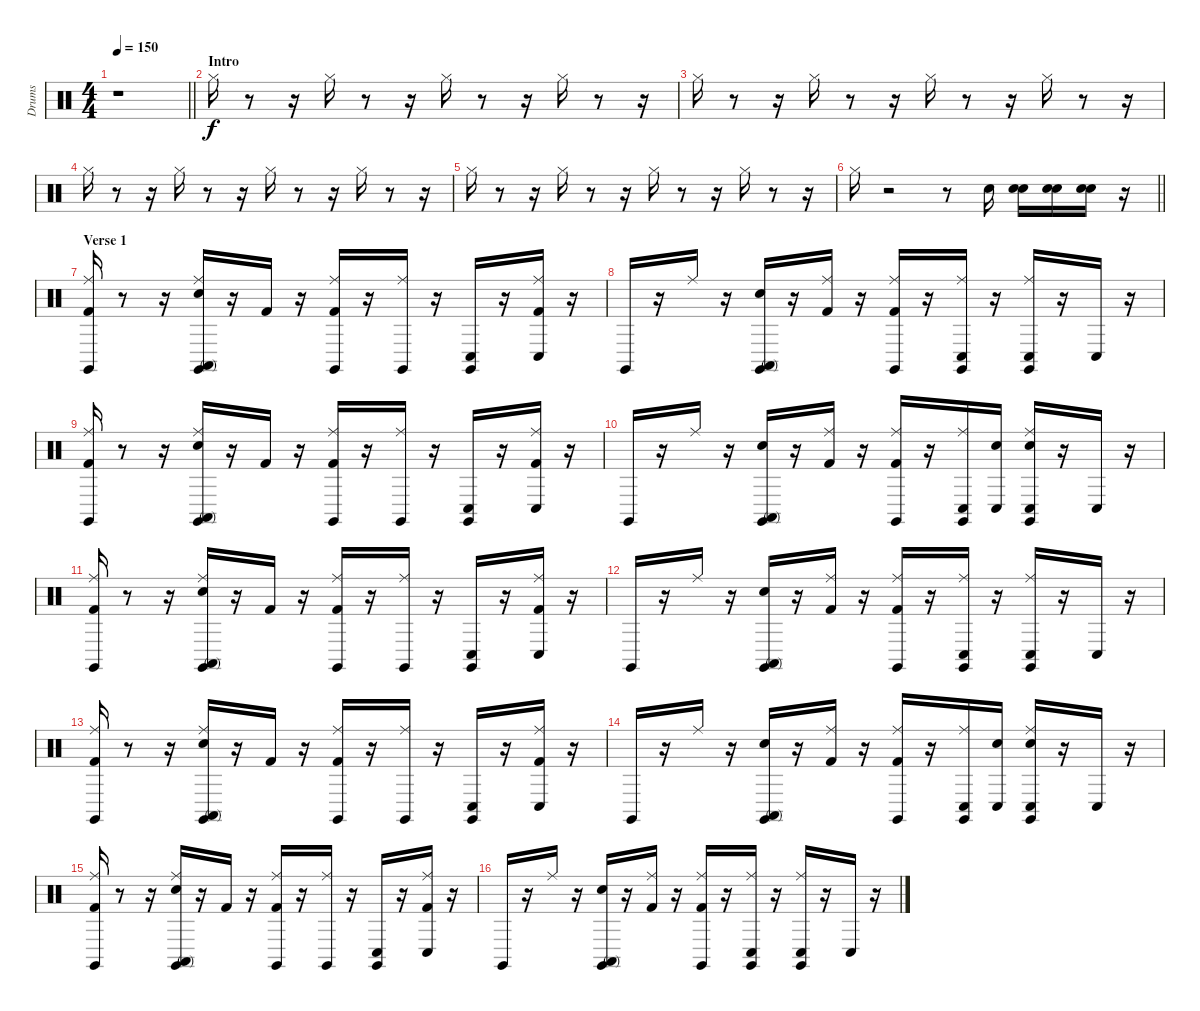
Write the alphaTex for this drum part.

\track ("Drums" "Drums") {instrument percussion}
\staff {score}
\articulation defaults
\ts (4 4)
\tempo 150
\clef neutral
\barLineRight lightlight
\ks c
r.1{dy f} |
\section ("" "Intro")
"Hi-Hat (closed)".16 r.8 r.16 "Hi-Hat (closed)".16 r.8 r.16 "Hi-Hat (closed)".16 r.8 r.16 "Hi-Hat (closed)".16 r.8 r.16 |
"Hi-Hat (closed)".16 r.8 r.16 "Hi-Hat (closed)".16 r.8 r.16 "Hi-Hat (closed)".16 r.8 r.16 "Hi-Hat (closed)".16 r.8 r.16 |
"Hi-Hat (closed)".16 r.8 r.16 "Hi-Hat (closed)".16 r.8 r.16 "Hi-Hat (closed)".16 r.8 r.16 "Hi-Hat (closed)".16 r.8 r.16 |
"Hi-Hat (closed)".16 r.8 r.16 "Hi-Hat (closed)".16 r.8 r.16 "Hi-Hat (closed)".16 r.8 r.16 "Hi-Hat (closed)".16 r.8 r.16 |
\barLineRight lightlight "Hi-Hat (closed)".16
r.2 r.8 "Snare (hit) 2".16 ("Snare (hit)" "Snare (hit) 2").16 ("Snare (hit)" "Snare (hit) 2").16 ("Snare (hit)" "Snare (hit) 2").16 r.16 |
\section ("" "Verse 1")
("Kick (hit) 2" "Ride (middle)" "Claves (hit)").16 r.8 r.16 ("Snare (hit) 2" "Ride (middle)" "Conga high (mute)" "Claves (hit)").16 r.16 "Kick (hit) 2".16 r.16 ("Kick (hit) 2" "Ride (middle)" "Claves (hit)").16 r.16 ("Ride (middle)" "Claves (hit)").16 r.16 ("Conga low (hit)" "Claves (hit)").16 r.16 ("Kick (hit) 2" "Ride (middle)" "Conga low (hit)").16 r.16 |
"Claves (hit)".16 r.16 "Ride (middle)".16 r.16 ("Snare (hit) 2" "Conga high (mute)" "Claves (hit)").16 r.16 ("Kick (hit) 2" "Ride (middle)").16 r.16 ("Kick (hit) 2" "Ride (middle)" "Claves (hit)").16 r.16 ("Ride (middle)" "Conga low (hit)" "Claves (hit)").16 r.16 ("Ride (middle)" "Conga low (hit)" "Claves (hit)").16 r.16 "Conga low (hit)".16 r.16 |
("Kick (hit) 2" "Ride (middle)" "Claves (hit)").16 r.8 r.16 ("Snare (hit) 2" "Ride (middle)" "Conga high (mute)" "Claves (hit)").16 r.16 "Kick (hit) 2".16 r.16 ("Kick (hit) 2" "Ride (middle)" "Claves (hit)").16 r.16 ("Ride (middle)" "Claves (hit)").16 r.16 ("Conga low (hit)" "Claves (hit)").16 r.16 ("Kick (hit) 2" "Ride (middle)" "Conga low (hit)").16 r.16 |
"Claves (hit)".16 r.16 "Ride (middle)".16 r.16 ("Snare (hit) 2" "Conga high (mute)" "Claves (hit)").16 r.16 ("Kick (hit) 2" "Ride (middle)").16 r.16 ("Kick (hit) 2" "Ride (middle)" "Claves (hit)").16 r.16 ("Ride (middle)" "Conga low (hit)" "Claves (hit)").16 ("Snare (hit)" "Conga low (hit)").16 ("Snare (hit)" "Ride (middle)" "Conga low (hit)" "Claves (hit)").16 r.16 "Conga low (hit)".16 r.16 |
("Kick (hit) 2" "Ride (middle)" "Claves (hit)").16 r.8 r.16 ("Snare (hit) 2" "Ride (middle)" "Conga high (mute)" "Claves (hit)").16 r.16 "Kick (hit) 2".16 r.16 ("Kick (hit) 2" "Ride (middle)" "Claves (hit)").16 r.16 ("Ride (middle)" "Claves (hit)").16 r.16 ("Conga low (hit)" "Claves (hit)").16 r.16 ("Kick (hit) 2" "Ride (middle)" "Conga low (hit)").16 r.16 |
"Claves (hit)".16 r.16 "Ride (middle)".16 r.16 ("Snare (hit) 2" "Conga high (mute)" "Claves (hit)").16 r.16 ("Kick (hit) 2" "Ride (middle)").16 r.16 ("Kick (hit) 2" "Ride (middle)" "Claves (hit)").16 r.16 ("Ride (middle)" "Conga low (hit)" "Claves (hit)").16 r.16 ("Ride (middle)" "Conga low (hit)" "Claves (hit)").16 r.16 "Conga low (hit)".16 r.16 |
("Kick (hit) 2" "Ride (middle)" "Claves (hit)").16 r.8 r.16 ("Snare (hit) 2" "Ride (middle)" "Conga high (mute)" "Claves (hit)").16 r.16 "Kick (hit) 2".16 r.16 ("Kick (hit) 2" "Ride (middle)" "Claves (hit)").16 r.16 ("Ride (middle)" "Claves (hit)").16 r.16 ("Conga low (hit)" "Claves (hit)").16 r.16 ("Kick (hit) 2" "Ride (middle)" "Conga low (hit)").16 r.16 |
"Claves (hit)".16 r.16 "Ride (middle)".16 r.16 ("Snare (hit) 2" "Conga high (mute)" "Claves (hit)").16 r.16 ("Kick (hit) 2" "Ride (middle)").16 r.16 ("Kick (hit) 2" "Ride (middle)" "Claves (hit)").16 r.16 ("Ride (middle)" "Conga low (hit)" "Claves (hit)").16 ("Snare (hit)" "Conga low (hit)").16 ("Snare (hit)" "Ride (middle)" "Conga low (hit)" "Claves (hit)").16 r.16 "Conga low (hit)".16 r.16 |
("Kick (hit) 2" "Ride (middle)" "Claves (hit)").16 r.8 r.16 ("Snare (hit) 2" "Ride (middle)" "Conga high (mute)" "Claves (hit)").16 r.16 "Kick (hit) 2".16 r.16 ("Kick (hit) 2" "Ride (middle)" "Claves (hit)").16 r.16 ("Ride (middle)" "Claves (hit)").16 r.16 ("Conga low (hit)" "Claves (hit)").16 r.16 ("Kick (hit) 2" "Ride (middle)" "Conga low (hit)").16 r.16 |
"Claves (hit)".16 r.16 "Ride (middle)".16 r.16 ("Snare (hit) 2" "Conga high (mute)" "Claves (hit)").16 r.16 ("Kick (hit) 2" "Ride (middle)").16 r.16 ("Kick (hit) 2" "Ride (middle)" "Claves (hit)").16 r.16 ("Ride (middle)" "Conga low (hit)" "Claves (hit)").16 r.16 ("Ride (middle)" "Conga low (hit)" "Claves (hit)").16 r.16 "Conga low (hit)".16 r.16
